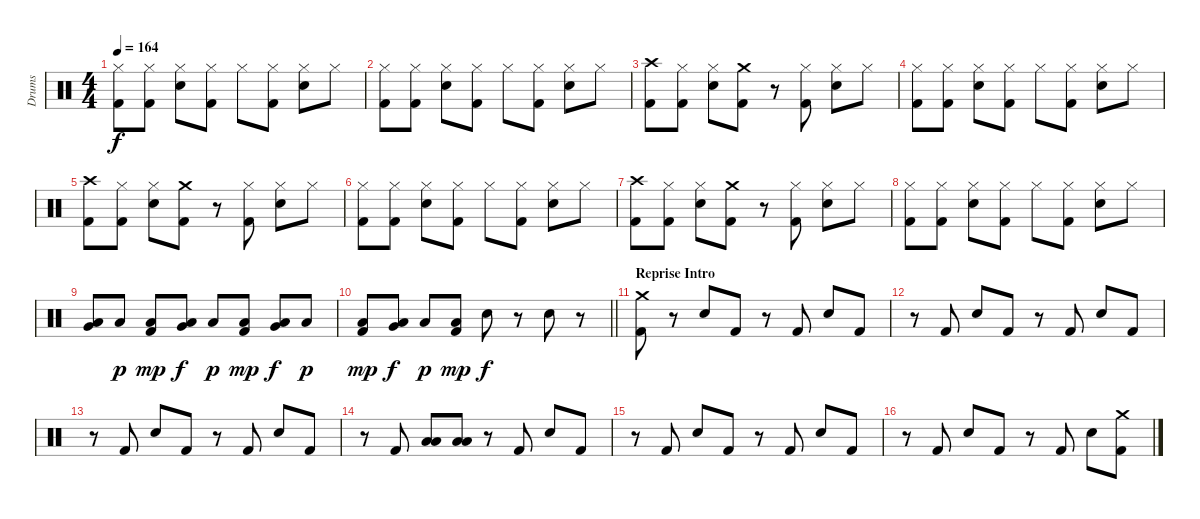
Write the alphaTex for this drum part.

\track ("Drums" "Drums") {instrument percussion}
\staff {score}
\articulation defaults
\ts (4 4)
\tempo 164
\clef neutral
\ks c
("Hi-Hat (closed)" "Kick (hit) 2").8{dy f} ("Hi-Hat (closed)" "Kick (hit) 2").8 ("Hi-Hat (closed)" "Snare (hit) 2").8 ("Hi-Hat (closed)" "Kick (hit) 2").8 "Hi-Hat (closed)".8 ("Hi-Hat (closed)" "Kick (hit) 2").8 ("Hi-Hat (closed)" "Snare (hit) 2").8 "Hi-Hat (closed)".8 |
("Hi-Hat (closed)" "Kick (hit) 2").8 ("Hi-Hat (closed)" "Kick (hit) 2").8 ("Hi-Hat (closed)" "Snare (hit) 2").8 ("Hi-Hat (closed)" "Kick (hit) 2").8 "Hi-Hat (closed)".8 ("Hi-Hat (closed)" "Kick (hit) 2").8 ("Hi-Hat (closed)" "Snare (hit) 2").8 "Hi-Hat (closed)".8 |
("Crash high (hit)" "Kick (hit) 2").8 ("Hi-Hat (closed)" "Kick (hit) 2").8 ("Hi-Hat (closed)" "Snare (hit) 2").8 ("Crash medium (hit)" "Kick (hit) 2").8 r.8 ("Hi-Hat (closed)" "Kick (hit) 2").8 ("Hi-Hat (closed)" "Snare (hit) 2").8 "Hi-Hat (closed)".8 |
("Hi-Hat (closed)" "Kick (hit) 2").8 ("Hi-Hat (closed)" "Kick (hit) 2").8 ("Hi-Hat (closed)" "Snare (hit) 2").8 ("Hi-Hat (closed)" "Kick (hit) 2").8 "Hi-Hat (closed)".8 ("Hi-Hat (closed)" "Kick (hit) 2").8 ("Hi-Hat (closed)" "Snare (hit) 2").8 "Hi-Hat (closed)".8 |
("Crash high (hit)" "Kick (hit) 2").8 ("Hi-Hat (closed)" "Kick (hit) 2").8 ("Hi-Hat (closed)" "Snare (hit) 2").8 ("Crash medium (hit)" "Kick (hit) 2").8 r.8 ("Hi-Hat (closed)" "Kick (hit) 2").8 ("Hi-Hat (closed)" "Snare (hit) 2").8 "Hi-Hat (closed)".8 |
("Hi-Hat (closed)" "Kick (hit) 2").8 ("Hi-Hat (closed)" "Kick (hit) 2").8 ("Hi-Hat (closed)" "Snare (hit) 2").8 ("Hi-Hat (closed)" "Kick (hit) 2").8 "Hi-Hat (closed)".8 ("Hi-Hat (closed)" "Kick (hit) 2").8 ("Hi-Hat (closed)" "Snare (hit) 2").8 "Hi-Hat (closed)".8 |
("Crash high (hit)" "Kick (hit) 2").8 ("Hi-Hat (closed)" "Kick (hit) 2").8 ("Hi-Hat (closed)" "Snare (hit) 2").8 ("Crash medium (hit)" "Kick (hit) 2").8 r.8 ("Hi-Hat (closed)" "Kick (hit) 2").8 ("Hi-Hat (closed)" "Snare (hit) 2").8 "Hi-Hat (closed)".8 |
("Hi-Hat (closed)" "Kick (hit) 2").8 ("Hi-Hat (closed)" "Kick (hit) 2").8 ("Hi-Hat (closed)" "Snare (hit) 2").8 ("Hi-Hat (closed)" "Kick (hit) 2").8 "Hi-Hat (closed)".8 ("Hi-Hat (closed)" "Kick (hit) 2").8 ("Hi-Hat (closed)" "Snare (hit) 2").8 "Hi-Hat (closed)".8 |
("Low Tom (hit)" "Very Low Tom (hit)").8 "Low Floor Tom (hit)".8{dy p} ("Low Floor Tom (hit)" "Kick (hit) 2").8{dy mp} ("Low Tom (hit)" "Very Low Tom (hit)").8{dy f} "Low Floor Tom (hit)".8{dy p} ("Low Floor Tom (hit)" "Kick (hit) 2").8{dy mp} ("Low Tom (hit)" "Very Low Tom (hit)").8{dy f} "Low Floor Tom (hit)".8{dy p} |
\barLineRight lightlight
("Low Floor Tom (hit)" "Kick (hit) 2").8{dy mp} ("Low Tom (hit)" "Very Low Tom (hit)").8{dy f} "Low Floor Tom (hit)".8{dy p} ("Low Floor Tom (hit)" "Kick (hit) 2").8{dy mp} "Snare (hit) 2".8{dy f} r.8 "Snare (hit) 2".8 r.8 |
\section ("" "Reprise Intro")
("Crash medium (hit)" "Kick (hit) 2").8 r.8 "Snare (hit) 2".8 "Kick (hit) 2".8 r.8 "Kick (hit) 2".8 "Snare (hit) 2".8 "Kick (hit) 2".8 |
r.8 "Kick (hit) 2".8 "Snare (hit) 2".8 "Kick (hit) 2".8 r.8 "Kick (hit) 2".8 "Snare (hit) 2".8 "Kick (hit) 2".8 |
r.8 "Kick (hit) 2".8 "Snare (hit) 2".8 "Kick (hit) 2".8 r.8 "Kick (hit) 2".8 "Snare (hit) 2".8 "Kick (hit) 2".8 |
r.8 "Kick (hit) 2".8 ("Low Floor Tom (hit)" "Low Floor Tom (hit)").8 ("Low Floor Tom (hit)" "Low Floor Tom (hit)").8 r.8 "Kick (hit) 2".8 "Snare (hit) 2".8 "Kick (hit) 2".8 |
r.8 "Kick (hit) 2".8 "Snare (hit) 2".8 "Kick (hit) 2".8 r.8 "Kick (hit) 2".8 "Snare (hit) 2".8 "Kick (hit) 2".8 |
r.8 "Kick (hit) 2".8 "Snare (hit) 2".8 "Kick (hit) 2".8 r.8 "Kick (hit) 2".8 "Snare (hit) 2".8 ("Crash medium (hit)" "Kick (hit) 2").8
